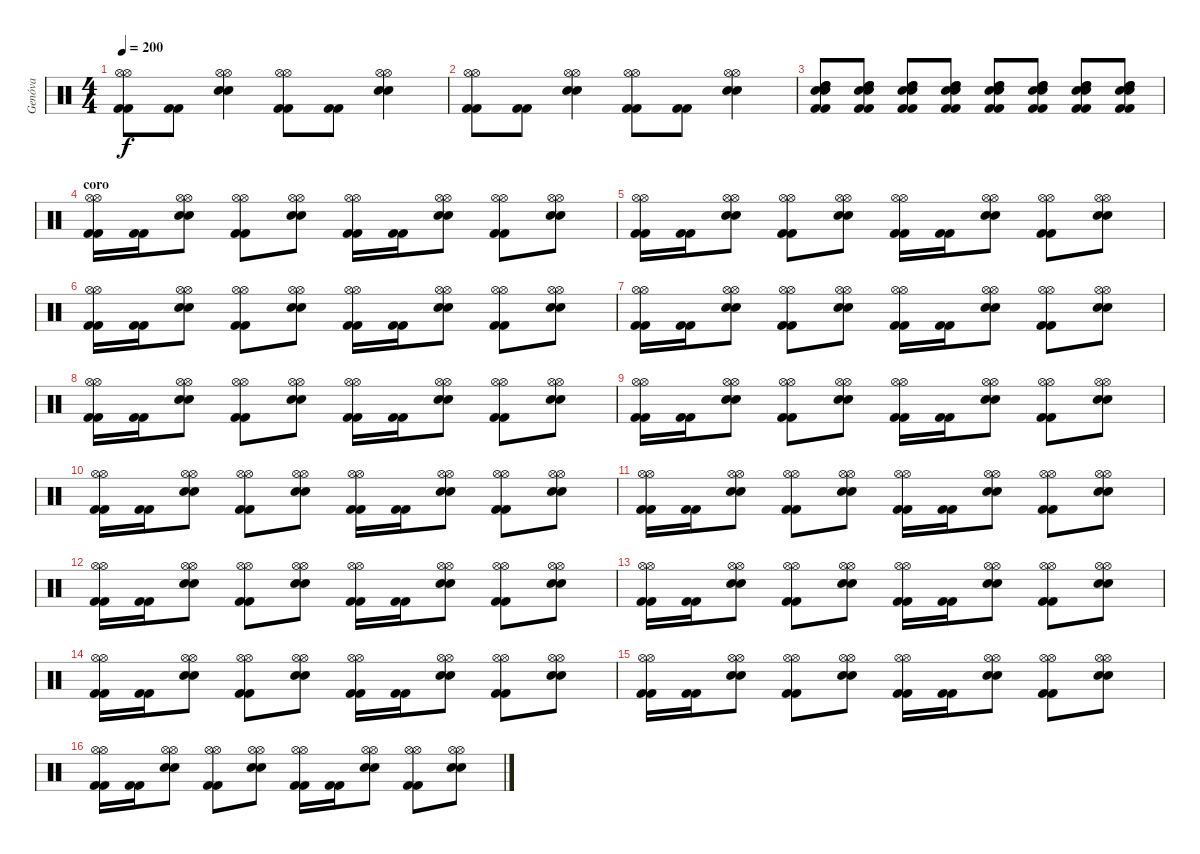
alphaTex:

\track ("Genóva" "Genóva") {instrument percussion}
\staff {score}
\articulation defaults
\ts (4 4)
\tempo 200
\clef neutral
\ks c
("Kick (hit) 2" "Kick (hit) 2" "Hi-Hat (open)" "Hi-Hat (open)").8{dy f} ("Kick (hit) 2" "Kick (hit) 2").8 ("Snare (hit) 2" "Snare (hit) 2" "Hi-Hat (open)" "Hi-Hat (open)").4 ("Kick (hit) 2" "Kick (hit) 2" "Hi-Hat (open)" "Hi-Hat (open)").8 ("Kick (hit) 2" "Kick (hit) 2").8 ("Snare (hit) 2" "Snare (hit) 2" "Hi-Hat (open)" "Hi-Hat (open)").4 |
("Kick (hit) 2" "Kick (hit) 2" "Hi-Hat (open)" "Hi-Hat (open)").8 ("Kick (hit) 2" "Kick (hit) 2").8 ("Snare (hit) 2" "Snare (hit) 2" "Hi-Hat (open)" "Hi-Hat (open)").4 ("Kick (hit) 2" "Kick (hit) 2" "Hi-Hat (open)" "Hi-Hat (open)").8 ("Kick (hit) 2" "Kick (hit) 2").8 ("Snare (hit) 2" "Snare (hit) 2" "Hi-Hat (open)" "Hi-Hat (open)").4 |
("Snare (hit) 2" "Snare (hit) 2" "High Tom (hit)" "High Tom (hit)" "Kick (hit) 2" "Kick (hit) 2").8 ("Snare (hit) 2" "Snare (hit) 2" "High Tom (hit)" "High Tom (hit)" "Kick (hit) 2" "Kick (hit) 2").8 ("Snare (hit) 2" "Snare (hit) 2" "High Tom (hit)" "High Tom (hit)" "Kick (hit) 2" "Kick (hit) 2").8 ("Snare (hit) 2" "Snare (hit) 2" "High Tom (hit)" "High Tom (hit)" "Kick (hit) 2" "Kick (hit) 2").8 ("Snare (hit) 2" "Snare (hit) 2" "High Tom (hit)" "High Tom (hit)" "Kick (hit) 2" "Kick (hit) 2").8 ("Snare (hit) 2" "Snare (hit) 2" "High Tom (hit)" "High Tom (hit)" "Kick (hit) 2" "Kick (hit) 2").8 ("Snare (hit) 2" "Snare (hit) 2" "High Tom (hit)" "High Tom (hit)" "Kick (hit) 2" "Kick (hit) 2").8 ("Snare (hit) 2" "Snare (hit) 2" "High Tom (hit)" "High Tom (hit)" "Kick (hit) 2" "Kick (hit) 2").8 |
\section ("" "coro")
("Kick (hit) 2" "Kick (hit) 2" "Hi-Hat (open)" "Hi-Hat (open)").16 ("Kick (hit) 2" "Kick (hit) 2").16 ("Snare (hit) 2" "Snare (hit) 2" "Hi-Hat (open)" "Hi-Hat (open)").8 ("Kick (hit) 2" "Kick (hit) 2" "Hi-Hat (open)" "Hi-Hat (open)").8 ("Snare (hit) 2" "Snare (hit) 2" "Hi-Hat (open)" "Hi-Hat (open)").8 ("Kick (hit) 2" "Kick (hit) 2" "Hi-Hat (open)" "Hi-Hat (open)").16 ("Kick (hit) 2" "Kick (hit) 2").16 ("Snare (hit) 2" "Snare (hit) 2" "Hi-Hat (open)" "Hi-Hat (open)").8 ("Kick (hit) 2" "Kick (hit) 2" "Hi-Hat (open)" "Hi-Hat (open)").8 ("Snare (hit) 2" "Snare (hit) 2" "Hi-Hat (open)" "Hi-Hat (open)").8 |
("Kick (hit) 2" "Kick (hit) 2" "Hi-Hat (open)" "Hi-Hat (open)").16 ("Kick (hit) 2" "Kick (hit) 2").16 ("Snare (hit) 2" "Snare (hit) 2" "Hi-Hat (open)" "Hi-Hat (open)").8 ("Kick (hit) 2" "Kick (hit) 2" "Hi-Hat (open)" "Hi-Hat (open)").8 ("Snare (hit) 2" "Snare (hit) 2" "Hi-Hat (open)" "Hi-Hat (open)").8 ("Kick (hit) 2" "Kick (hit) 2" "Hi-Hat (open)" "Hi-Hat (open)").16 ("Kick (hit) 2" "Kick (hit) 2").16 ("Snare (hit) 2" "Snare (hit) 2" "Hi-Hat (open)" "Hi-Hat (open)").8 ("Kick (hit) 2" "Kick (hit) 2" "Hi-Hat (open)" "Hi-Hat (open)").8 ("Snare (hit) 2" "Snare (hit) 2" "Hi-Hat (open)" "Hi-Hat (open)").8 |
("Kick (hit) 2" "Kick (hit) 2" "Hi-Hat (open)" "Hi-Hat (open)").16 ("Kick (hit) 2" "Kick (hit) 2").16 ("Snare (hit) 2" "Snare (hit) 2" "Hi-Hat (open)" "Hi-Hat (open)").8 ("Kick (hit) 2" "Kick (hit) 2" "Hi-Hat (open)" "Hi-Hat (open)").8 ("Snare (hit) 2" "Snare (hit) 2" "Hi-Hat (open)" "Hi-Hat (open)").8 ("Kick (hit) 2" "Kick (hit) 2" "Hi-Hat (open)" "Hi-Hat (open)").16 ("Kick (hit) 2" "Kick (hit) 2").16 ("Snare (hit) 2" "Snare (hit) 2" "Hi-Hat (open)" "Hi-Hat (open)").8 ("Kick (hit) 2" "Kick (hit) 2" "Hi-Hat (open)" "Hi-Hat (open)").8 ("Snare (hit) 2" "Snare (hit) 2" "Hi-Hat (open)" "Hi-Hat (open)").8 |
("Kick (hit) 2" "Kick (hit) 2" "Hi-Hat (open)" "Hi-Hat (open)").16 ("Kick (hit) 2" "Kick (hit) 2").16 ("Snare (hit) 2" "Snare (hit) 2" "Hi-Hat (open)" "Hi-Hat (open)").8 ("Kick (hit) 2" "Kick (hit) 2" "Hi-Hat (open)" "Hi-Hat (open)").8 ("Snare (hit) 2" "Snare (hit) 2" "Hi-Hat (open)" "Hi-Hat (open)").8 ("Kick (hit) 2" "Kick (hit) 2" "Hi-Hat (open)" "Hi-Hat (open)").16 ("Kick (hit) 2" "Kick (hit) 2").16 ("Snare (hit) 2" "Snare (hit) 2" "Hi-Hat (open)" "Hi-Hat (open)").8 ("Kick (hit) 2" "Kick (hit) 2" "Hi-Hat (open)" "Hi-Hat (open)").8 ("Snare (hit) 2" "Snare (hit) 2" "Hi-Hat (open)" "Hi-Hat (open)").8 |
("Kick (hit) 2" "Kick (hit) 2" "Hi-Hat (open)" "Hi-Hat (open)").16 ("Kick (hit) 2" "Kick (hit) 2").16 ("Snare (hit) 2" "Snare (hit) 2" "Hi-Hat (open)" "Hi-Hat (open)").8 ("Kick (hit) 2" "Kick (hit) 2" "Hi-Hat (open)" "Hi-Hat (open)").8 ("Snare (hit) 2" "Snare (hit) 2" "Hi-Hat (open)" "Hi-Hat (open)").8 ("Kick (hit) 2" "Kick (hit) 2" "Hi-Hat (open)" "Hi-Hat (open)").16 ("Kick (hit) 2" "Kick (hit) 2").16 ("Snare (hit) 2" "Snare (hit) 2" "Hi-Hat (open)" "Hi-Hat (open)").8 ("Kick (hit) 2" "Kick (hit) 2" "Hi-Hat (open)" "Hi-Hat (open)").8 ("Snare (hit) 2" "Snare (hit) 2" "Hi-Hat (open)" "Hi-Hat (open)").8 |
("Kick (hit) 2" "Kick (hit) 2" "Hi-Hat (open)" "Hi-Hat (open)").16 ("Kick (hit) 2" "Kick (hit) 2").16 ("Snare (hit) 2" "Snare (hit) 2" "Hi-Hat (open)" "Hi-Hat (open)").8 ("Kick (hit) 2" "Kick (hit) 2" "Hi-Hat (open)" "Hi-Hat (open)").8 ("Snare (hit) 2" "Snare (hit) 2" "Hi-Hat (open)" "Hi-Hat (open)").8 ("Kick (hit) 2" "Kick (hit) 2" "Hi-Hat (open)" "Hi-Hat (open)").16 ("Kick (hit) 2" "Kick (hit) 2").16 ("Snare (hit) 2" "Snare (hit) 2" "Hi-Hat (open)" "Hi-Hat (open)").8 ("Kick (hit) 2" "Kick (hit) 2" "Hi-Hat (open)" "Hi-Hat (open)").8 ("Snare (hit) 2" "Snare (hit) 2" "Hi-Hat (open)" "Hi-Hat (open)").8 |
("Kick (hit) 2" "Kick (hit) 2" "Hi-Hat (open)" "Hi-Hat (open)").16 ("Kick (hit) 2" "Kick (hit) 2").16 ("Snare (hit) 2" "Snare (hit) 2" "Hi-Hat (open)" "Hi-Hat (open)").8 ("Kick (hit) 2" "Kick (hit) 2" "Hi-Hat (open)" "Hi-Hat (open)").8 ("Snare (hit) 2" "Snare (hit) 2" "Hi-Hat (open)" "Hi-Hat (open)").8 ("Kick (hit) 2" "Kick (hit) 2" "Hi-Hat (open)" "Hi-Hat (open)").16 ("Kick (hit) 2" "Kick (hit) 2").16 ("Snare (hit) 2" "Snare (hit) 2" "Hi-Hat (open)" "Hi-Hat (open)").8 ("Kick (hit) 2" "Kick (hit) 2" "Hi-Hat (open)" "Hi-Hat (open)").8 ("Snare (hit) 2" "Snare (hit) 2" "Hi-Hat (open)" "Hi-Hat (open)").8 |
("Kick (hit) 2" "Kick (hit) 2" "Hi-Hat (open)" "Hi-Hat (open)").16 ("Kick (hit) 2" "Kick (hit) 2").16 ("Snare (hit) 2" "Snare (hit) 2" "Hi-Hat (open)" "Hi-Hat (open)").8 ("Kick (hit) 2" "Kick (hit) 2" "Hi-Hat (open)" "Hi-Hat (open)").8 ("Snare (hit) 2" "Snare (hit) 2" "Hi-Hat (open)" "Hi-Hat (open)").8 ("Kick (hit) 2" "Kick (hit) 2" "Hi-Hat (open)" "Hi-Hat (open)").16 ("Kick (hit) 2" "Kick (hit) 2").16 ("Snare (hit) 2" "Snare (hit) 2" "Hi-Hat (open)" "Hi-Hat (open)").8 ("Kick (hit) 2" "Kick (hit) 2" "Hi-Hat (open)" "Hi-Hat (open)").8 ("Snare (hit) 2" "Snare (hit) 2" "Hi-Hat (open)" "Hi-Hat (open)").8 |
("Kick (hit) 2" "Kick (hit) 2" "Hi-Hat (open)" "Hi-Hat (open)").16 ("Kick (hit) 2" "Kick (hit) 2").16 ("Snare (hit) 2" "Snare (hit) 2" "Hi-Hat (open)" "Hi-Hat (open)").8 ("Kick (hit) 2" "Kick (hit) 2" "Hi-Hat (open)" "Hi-Hat (open)").8 ("Snare (hit) 2" "Snare (hit) 2" "Hi-Hat (open)" "Hi-Hat (open)").8 ("Kick (hit) 2" "Kick (hit) 2" "Hi-Hat (open)" "Hi-Hat (open)").16 ("Kick (hit) 2" "Kick (hit) 2").16 ("Snare (hit) 2" "Snare (hit) 2" "Hi-Hat (open)" "Hi-Hat (open)").8 ("Kick (hit) 2" "Kick (hit) 2" "Hi-Hat (open)" "Hi-Hat (open)").8 ("Snare (hit) 2" "Snare (hit) 2" "Hi-Hat (open)" "Hi-Hat (open)").8 |
("Kick (hit) 2" "Kick (hit) 2" "Hi-Hat (open)" "Hi-Hat (open)").16 ("Kick (hit) 2" "Kick (hit) 2").16 ("Snare (hit) 2" "Snare (hit) 2" "Hi-Hat (open)" "Hi-Hat (open)").8 ("Kick (hit) 2" "Kick (hit) 2" "Hi-Hat (open)" "Hi-Hat (open)").8 ("Snare (hit) 2" "Snare (hit) 2" "Hi-Hat (open)" "Hi-Hat (open)").8 ("Kick (hit) 2" "Kick (hit) 2" "Hi-Hat (open)" "Hi-Hat (open)").16 ("Kick (hit) 2" "Kick (hit) 2").16 ("Snare (hit) 2" "Snare (hit) 2" "Hi-Hat (open)" "Hi-Hat (open)").8 ("Kick (hit) 2" "Kick (hit) 2" "Hi-Hat (open)" "Hi-Hat (open)").8 ("Snare (hit) 2" "Snare (hit) 2" "Hi-Hat (open)" "Hi-Hat (open)").8 |
("Kick (hit) 2" "Kick (hit) 2" "Hi-Hat (open)" "Hi-Hat (open)").16 ("Kick (hit) 2" "Kick (hit) 2").16 ("Snare (hit) 2" "Snare (hit) 2" "Hi-Hat (open)" "Hi-Hat (open)").8 ("Kick (hit) 2" "Kick (hit) 2" "Hi-Hat (open)" "Hi-Hat (open)").8 ("Snare (hit) 2" "Snare (hit) 2" "Hi-Hat (open)" "Hi-Hat (open)").8 ("Kick (hit) 2" "Kick (hit) 2" "Hi-Hat (open)" "Hi-Hat (open)").16 ("Kick (hit) 2" "Kick (hit) 2").16 ("Snare (hit) 2" "Snare (hit) 2" "Hi-Hat (open)" "Hi-Hat (open)").8 ("Kick (hit) 2" "Kick (hit) 2" "Hi-Hat (open)" "Hi-Hat (open)").8 ("Snare (hit) 2" "Snare (hit) 2" "Hi-Hat (open)" "Hi-Hat (open)").8 |
("Kick (hit) 2" "Kick (hit) 2" "Hi-Hat (open)" "Hi-Hat (open)").16 ("Kick (hit) 2" "Kick (hit) 2").16 ("Snare (hit) 2" "Snare (hit) 2" "Hi-Hat (open)" "Hi-Hat (open)").8 ("Kick (hit) 2" "Kick (hit) 2" "Hi-Hat (open)" "Hi-Hat (open)").8 ("Snare (hit) 2" "Snare (hit) 2" "Hi-Hat (open)" "Hi-Hat (open)").8 ("Kick (hit) 2" "Kick (hit) 2" "Hi-Hat (open)" "Hi-Hat (open)").16 ("Kick (hit) 2" "Kick (hit) 2").16 ("Snare (hit) 2" "Snare (hit) 2" "Hi-Hat (open)" "Hi-Hat (open)").8 ("Kick (hit) 2" "Kick (hit) 2" "Hi-Hat (open)" "Hi-Hat (open)").8 ("Snare (hit) 2" "Snare (hit) 2" "Hi-Hat (open)" "Hi-Hat (open)").8 |
("Kick (hit) 2" "Kick (hit) 2" "Hi-Hat (open)" "Hi-Hat (open)").16 ("Kick (hit) 2" "Kick (hit) 2").16 ("Snare (hit) 2" "Snare (hit) 2" "Hi-Hat (open)" "Hi-Hat (open)").8 ("Kick (hit) 2" "Kick (hit) 2" "Hi-Hat (open)" "Hi-Hat (open)").8 ("Snare (hit) 2" "Snare (hit) 2" "Hi-Hat (open)" "Hi-Hat (open)").8 ("Kick (hit) 2" "Kick (hit) 2" "Hi-Hat (open)" "Hi-Hat (open)").16 ("Kick (hit) 2" "Kick (hit) 2").16 ("Snare (hit) 2" "Snare (hit) 2" "Hi-Hat (open)" "Hi-Hat (open)").8 ("Kick (hit) 2" "Kick (hit) 2" "Hi-Hat (open)" "Hi-Hat (open)").8 ("Snare (hit) 2" "Snare (hit) 2" "Hi-Hat (open)" "Hi-Hat (open)").8
